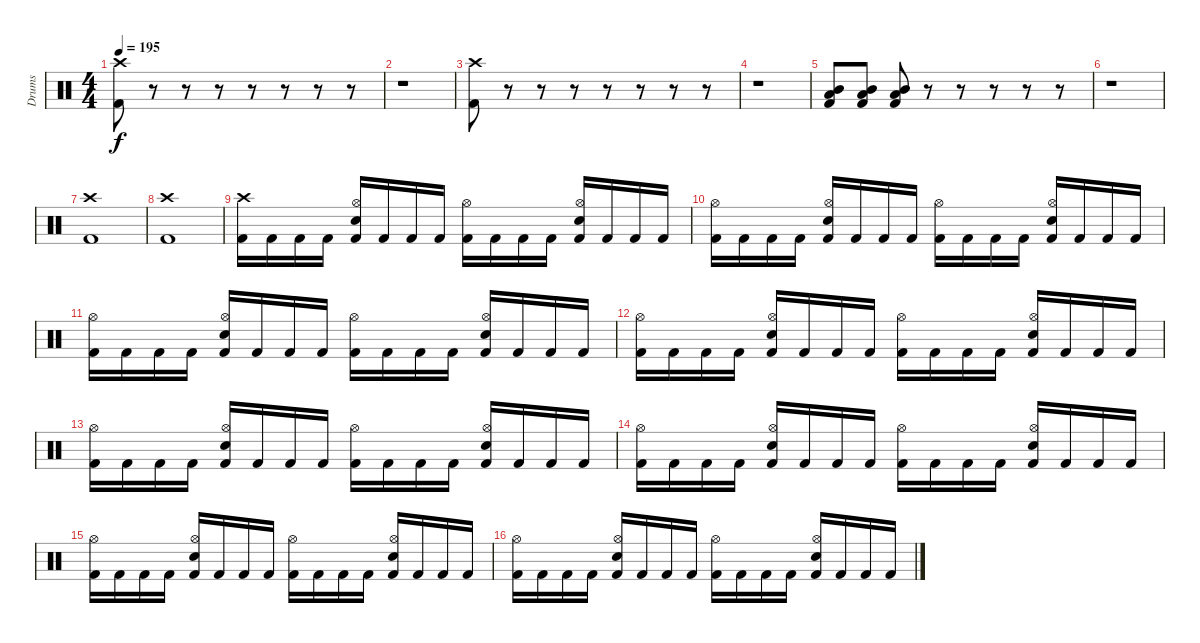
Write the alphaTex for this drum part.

\track ("Drums" "Drums") {instrument percussion}
\staff {score}
\articulation defaults
\ts (4 4)
\tempo 195
\clef neutral
\ks c
("Crash high (hit)" "Kick (hit) 2").8{dy f} r.8 r.8 r.8 r.8 r.8 r.8 r.8 |
r.1 |
("Crash high (hit)" "Kick (hit) 2").8 r.8 r.8 r.8 r.8 r.8 r.8 r.8 |
r.1 |
("Mid Tom (hit)" "Low Floor Tom (hit)" "Kick (hit) 2").8 ("Mid Tom (hit)" "Low Floor Tom (hit)" "Kick (hit) 2").8 ("Mid Tom (hit)" "Low Floor Tom (hit)" "Kick (hit) 2").8 r.8 r.8 r.8 r.8 r.8 |
r.1 |
("Crash high (hit)" "Kick (hit) 2").1 |
("Crash high (hit)" "Kick (hit) 2").1 |
("Crash high (hit)" "Kick (hit) 2").16 "Kick (hit) 2".16 "Kick (hit) 2".16 "Kick (hit) 2".16 ("Hi-Hat (open)" "Snare (hit) 2" "Kick (hit) 2").16 "Kick (hit) 2".16 "Kick (hit) 2".16 "Kick (hit) 2".16 ("Hi-Hat (open)" "Kick (hit) 2").16 "Kick (hit) 2".16 "Kick (hit) 2".16 "Kick (hit) 2".16 ("Hi-Hat (open)" "Snare (hit) 2" "Kick (hit) 2").16 "Kick (hit) 2".16 "Kick (hit) 2".16 "Kick (hit) 2".16 |
("Hi-Hat (open)" "Kick (hit) 2").16 "Kick (hit) 2".16 "Kick (hit) 2".16 "Kick (hit) 2".16 ("Hi-Hat (open)" "Snare (hit) 2" "Kick (hit) 2").16 "Kick (hit) 2".16 "Kick (hit) 2".16 "Kick (hit) 2".16 ("Hi-Hat (open)" "Kick (hit) 2").16 "Kick (hit) 2".16 "Kick (hit) 2".16 "Kick (hit) 2".16 ("Hi-Hat (open)" "Snare (hit) 2" "Kick (hit) 2").16 "Kick (hit) 2".16 "Kick (hit) 2".16 "Kick (hit) 2".16 |
("Hi-Hat (open)" "Kick (hit) 2").16 "Kick (hit) 2".16 "Kick (hit) 2".16 "Kick (hit) 2".16 ("Hi-Hat (open)" "Snare (hit) 2" "Kick (hit) 2").16 "Kick (hit) 2".16 "Kick (hit) 2".16 "Kick (hit) 2".16 ("Hi-Hat (open)" "Kick (hit) 2").16 "Kick (hit) 2".16 "Kick (hit) 2".16 "Kick (hit) 2".16 ("Hi-Hat (open)" "Snare (hit) 2" "Kick (hit) 2").16 "Kick (hit) 2".16 "Kick (hit) 2".16 "Kick (hit) 2".16 |
("Hi-Hat (open)" "Kick (hit) 2").16 "Kick (hit) 2".16 "Kick (hit) 2".16 "Kick (hit) 2".16 ("Hi-Hat (open)" "Snare (hit) 2" "Kick (hit) 2").16 "Kick (hit) 2".16 "Kick (hit) 2".16 "Kick (hit) 2".16 ("Hi-Hat (open)" "Kick (hit) 2").16 "Kick (hit) 2".16 "Kick (hit) 2".16 "Kick (hit) 2".16 ("Hi-Hat (open)" "Snare (hit) 2" "Kick (hit) 2").16 "Kick (hit) 2".16 "Kick (hit) 2".16 "Kick (hit) 2".16 |
("Hi-Hat (open)" "Kick (hit) 2").16 "Kick (hit) 2".16 "Kick (hit) 2".16 "Kick (hit) 2".16 ("Hi-Hat (open)" "Snare (hit) 2" "Kick (hit) 2").16 "Kick (hit) 2".16 "Kick (hit) 2".16 "Kick (hit) 2".16 ("Hi-Hat (open)" "Kick (hit) 2").16 "Kick (hit) 2".16 "Kick (hit) 2".16 "Kick (hit) 2".16 ("Hi-Hat (open)" "Snare (hit) 2" "Kick (hit) 2").16 "Kick (hit) 2".16 "Kick (hit) 2".16 "Kick (hit) 2".16 |
("Hi-Hat (open)" "Kick (hit) 2").16 "Kick (hit) 2".16 "Kick (hit) 2".16 "Kick (hit) 2".16 ("Hi-Hat (open)" "Snare (hit) 2" "Kick (hit) 2").16 "Kick (hit) 2".16 "Kick (hit) 2".16 "Kick (hit) 2".16 ("Hi-Hat (open)" "Kick (hit) 2").16 "Kick (hit) 2".16 "Kick (hit) 2".16 "Kick (hit) 2".16 ("Hi-Hat (open)" "Snare (hit) 2" "Kick (hit) 2").16 "Kick (hit) 2".16 "Kick (hit) 2".16 "Kick (hit) 2".16 |
("Hi-Hat (open)" "Kick (hit) 2").16 "Kick (hit) 2".16 "Kick (hit) 2".16 "Kick (hit) 2".16 ("Hi-Hat (open)" "Snare (hit) 2" "Kick (hit) 2").16 "Kick (hit) 2".16 "Kick (hit) 2".16 "Kick (hit) 2".16 ("Hi-Hat (open)" "Kick (hit) 2").16 "Kick (hit) 2".16 "Kick (hit) 2".16 "Kick (hit) 2".16 ("Hi-Hat (open)" "Snare (hit) 2" "Kick (hit) 2").16 "Kick (hit) 2".16 "Kick (hit) 2".16 "Kick (hit) 2".16 |
("Hi-Hat (open)" "Kick (hit) 2").16 "Kick (hit) 2".16 "Kick (hit) 2".16 "Kick (hit) 2".16 ("Hi-Hat (open)" "Snare (hit) 2" "Kick (hit) 2").16 "Kick (hit) 2".16 "Kick (hit) 2".16 "Kick (hit) 2".16 ("Hi-Hat (open)" "Kick (hit) 2").16 "Kick (hit) 2".16 "Kick (hit) 2".16 "Kick (hit) 2".16 ("Hi-Hat (open)" "Snare (hit) 2" "Kick (hit) 2").16 "Kick (hit) 2".16 "Kick (hit) 2".16 "Kick (hit) 2".16
